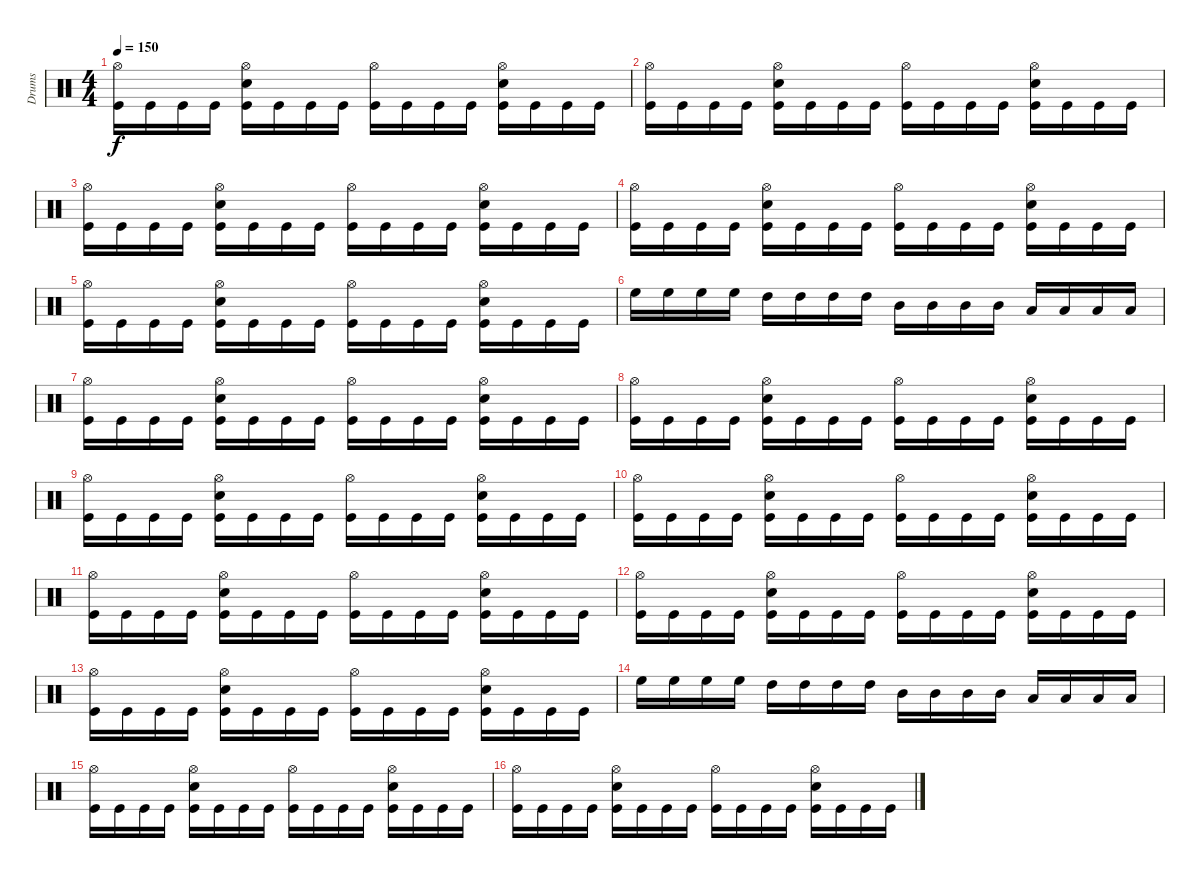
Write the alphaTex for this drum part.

\track ("Drums" "Drums") {instrument percussion}
\staff {score}
\articulation defaults
\ts (4 4)
\tempo 150
\clef neutral
\ks c
("Hi-Hat (open)" "Kick (hit)").16{dy f} "Kick (hit)".16 "Kick (hit)".16 "Kick (hit)".16 ("Hi-Hat (open)" "Snare (hit) 2" "Kick (hit)").16 "Kick (hit)".16 "Kick (hit)".16 "Kick (hit)".16 ("Hi-Hat (open)" "Kick (hit)").16 "Kick (hit)".16 "Kick (hit)".16 "Kick (hit)".16 ("Hi-Hat (open)" "Snare (hit) 2" "Kick (hit)").16 "Kick (hit)".16 "Kick (hit)".16 "Kick (hit)".16 |
("Hi-Hat (open)" "Kick (hit)").16 "Kick (hit)".16 "Kick (hit)".16 "Kick (hit)".16 ("Hi-Hat (open)" "Snare (hit) 2" "Kick (hit)").16 "Kick (hit)".16 "Kick (hit)".16 "Kick (hit)".16 ("Hi-Hat (open)" "Kick (hit)").16 "Kick (hit)".16 "Kick (hit)".16 "Kick (hit)".16 ("Hi-Hat (open)" "Snare (hit) 2" "Kick (hit)").16 "Kick (hit)".16 "Kick (hit)".16 "Kick (hit)".16 |
("Hi-Hat (open)" "Kick (hit)").16 "Kick (hit)".16 "Kick (hit)".16 "Kick (hit)".16 ("Hi-Hat (open)" "Snare (hit) 2" "Kick (hit)").16 "Kick (hit)".16 "Kick (hit)".16 "Kick (hit)".16 ("Hi-Hat (open)" "Kick (hit)").16 "Kick (hit)".16 "Kick (hit)".16 "Kick (hit)".16 ("Hi-Hat (open)" "Snare (hit) 2" "Kick (hit)").16 "Kick (hit)".16 "Kick (hit)".16 "Kick (hit)".16 |
("Hi-Hat (open)" "Kick (hit)").16 "Kick (hit)".16 "Kick (hit)".16 "Kick (hit)".16 ("Hi-Hat (open)" "Snare (hit) 2" "Kick (hit)").16 "Kick (hit)".16 "Kick (hit)".16 "Kick (hit)".16 ("Hi-Hat (open)" "Kick (hit)").16 "Kick (hit)".16 "Kick (hit)".16 "Kick (hit)".16 ("Hi-Hat (open)" "Snare (hit) 2" "Kick (hit)").16 "Kick (hit)".16 "Kick (hit)".16 "Kick (hit)".16 |
("Hi-Hat (open)" "Kick (hit)").16 "Kick (hit)".16 "Kick (hit)".16 "Kick (hit)".16 ("Hi-Hat (open)" "Snare (hit) 2" "Kick (hit)").16 "Kick (hit)".16 "Kick (hit)".16 "Kick (hit)".16 ("Hi-Hat (open)" "Kick (hit)").16 "Kick (hit)".16 "Kick (hit)".16 "Kick (hit)".16 ("Hi-Hat (open)" "Snare (hit) 2" "Kick (hit)").16 "Kick (hit)".16 "Kick (hit)".16 "Kick (hit)".16 |
"High Floor Tom (hit)".16 "High Floor Tom (hit)".16 "High Floor Tom (hit)".16 "High Floor Tom (hit)".16 "High Tom (hit)".16 "High Tom (hit)".16 "High Tom (hit)".16 "High Tom (hit)".16 "Mid Tom (hit)".16 "Mid Tom (hit)".16 "Mid Tom (hit)".16 "Mid Tom (hit)".16 "Low Tom (hit)".16 "Low Tom (hit)".16 "Low Tom (hit)".16 "Low Tom (hit)".16 |
("Hi-Hat (open)" "Kick (hit)").16 "Kick (hit)".16 "Kick (hit)".16 "Kick (hit)".16 ("Hi-Hat (open)" "Snare (hit) 2" "Kick (hit)").16 "Kick (hit)".16 "Kick (hit)".16 "Kick (hit)".16 ("Hi-Hat (open)" "Kick (hit)").16 "Kick (hit)".16 "Kick (hit)".16 "Kick (hit)".16 ("Hi-Hat (open)" "Snare (hit) 2" "Kick (hit)").16 "Kick (hit)".16 "Kick (hit)".16 "Kick (hit)".16 |
("Hi-Hat (open)" "Kick (hit)").16 "Kick (hit)".16 "Kick (hit)".16 "Kick (hit)".16 ("Hi-Hat (open)" "Snare (hit) 2" "Kick (hit)").16 "Kick (hit)".16 "Kick (hit)".16 "Kick (hit)".16 ("Hi-Hat (open)" "Kick (hit)").16 "Kick (hit)".16 "Kick (hit)".16 "Kick (hit)".16 ("Hi-Hat (open)" "Snare (hit) 2" "Kick (hit)").16 "Kick (hit)".16 "Kick (hit)".16 "Kick (hit)".16 |
("Hi-Hat (open)" "Kick (hit)").16 "Kick (hit)".16 "Kick (hit)".16 "Kick (hit)".16 ("Hi-Hat (open)" "Snare (hit) 2" "Kick (hit)").16 "Kick (hit)".16 "Kick (hit)".16 "Kick (hit)".16 ("Hi-Hat (open)" "Kick (hit)").16 "Kick (hit)".16 "Kick (hit)".16 "Kick (hit)".16 ("Hi-Hat (open)" "Snare (hit) 2" "Kick (hit)").16 "Kick (hit)".16 "Kick (hit)".16 "Kick (hit)".16 |
("Hi-Hat (open)" "Kick (hit)").16 "Kick (hit)".16 "Kick (hit)".16 "Kick (hit)".16 ("Hi-Hat (open)" "Snare (hit) 2" "Kick (hit)").16 "Kick (hit)".16 "Kick (hit)".16 "Kick (hit)".16 ("Hi-Hat (open)" "Kick (hit)").16 "Kick (hit)".16 "Kick (hit)".16 "Kick (hit)".16 ("Hi-Hat (open)" "Snare (hit) 2" "Kick (hit)").16 "Kick (hit)".16 "Kick (hit)".16 "Kick (hit)".16 |
("Hi-Hat (open)" "Kick (hit)").16 "Kick (hit)".16 "Kick (hit)".16 "Kick (hit)".16 ("Hi-Hat (open)" "Snare (hit) 2" "Kick (hit)").16 "Kick (hit)".16 "Kick (hit)".16 "Kick (hit)".16 ("Hi-Hat (open)" "Kick (hit)").16 "Kick (hit)".16 "Kick (hit)".16 "Kick (hit)".16 ("Hi-Hat (open)" "Snare (hit) 2" "Kick (hit)").16 "Kick (hit)".16 "Kick (hit)".16 "Kick (hit)".16 |
("Hi-Hat (open)" "Kick (hit)").16 "Kick (hit)".16 "Kick (hit)".16 "Kick (hit)".16 ("Hi-Hat (open)" "Snare (hit) 2" "Kick (hit)").16 "Kick (hit)".16 "Kick (hit)".16 "Kick (hit)".16 ("Hi-Hat (open)" "Kick (hit)").16 "Kick (hit)".16 "Kick (hit)".16 "Kick (hit)".16 ("Hi-Hat (open)" "Snare (hit) 2" "Kick (hit)").16 "Kick (hit)".16 "Kick (hit)".16 "Kick (hit)".16 |
("Hi-Hat (open)" "Kick (hit)").16 "Kick (hit)".16 "Kick (hit)".16 "Kick (hit)".16 ("Hi-Hat (open)" "Snare (hit) 2" "Kick (hit)").16 "Kick (hit)".16 "Kick (hit)".16 "Kick (hit)".16 ("Hi-Hat (open)" "Kick (hit)").16 "Kick (hit)".16 "Kick (hit)".16 "Kick (hit)".16 ("Hi-Hat (open)" "Snare (hit) 2" "Kick (hit)").16 "Kick (hit)".16 "Kick (hit)".16 "Kick (hit)".16 |
"High Floor Tom (hit)".16 "High Floor Tom (hit)".16 "High Floor Tom (hit)".16 "High Floor Tom (hit)".16 "High Tom (hit)".16 "High Tom (hit)".16 "High Tom (hit)".16 "High Tom (hit)".16 "Mid Tom (hit)".16 "Mid Tom (hit)".16 "Mid Tom (hit)".16 "Mid Tom (hit)".16 "Low Tom (hit)".16 "Low Tom (hit)".16 "Low Tom (hit)".16 "Low Tom (hit)".16 |
("Hi-Hat (open)" "Kick (hit)").16 "Kick (hit)".16 "Kick (hit)".16 "Kick (hit)".16 ("Hi-Hat (open)" "Snare (hit) 2" "Kick (hit)").16 "Kick (hit)".16 "Kick (hit)".16 "Kick (hit)".16 ("Hi-Hat (open)" "Kick (hit)").16 "Kick (hit)".16 "Kick (hit)".16 "Kick (hit)".16 ("Hi-Hat (open)" "Snare (hit) 2" "Kick (hit)").16 "Kick (hit)".16 "Kick (hit)".16 "Kick (hit)".16 |
("Hi-Hat (open)" "Kick (hit)").16 "Kick (hit)".16 "Kick (hit)".16 "Kick (hit)".16 ("Hi-Hat (open)" "Snare (hit) 2" "Kick (hit)").16 "Kick (hit)".16 "Kick (hit)".16 "Kick (hit)".16 ("Hi-Hat (open)" "Kick (hit)").16 "Kick (hit)".16 "Kick (hit)".16 "Kick (hit)".16 ("Hi-Hat (open)" "Snare (hit) 2" "Kick (hit)").16 "Kick (hit)".16 "Kick (hit)".16 "Kick (hit)".16
